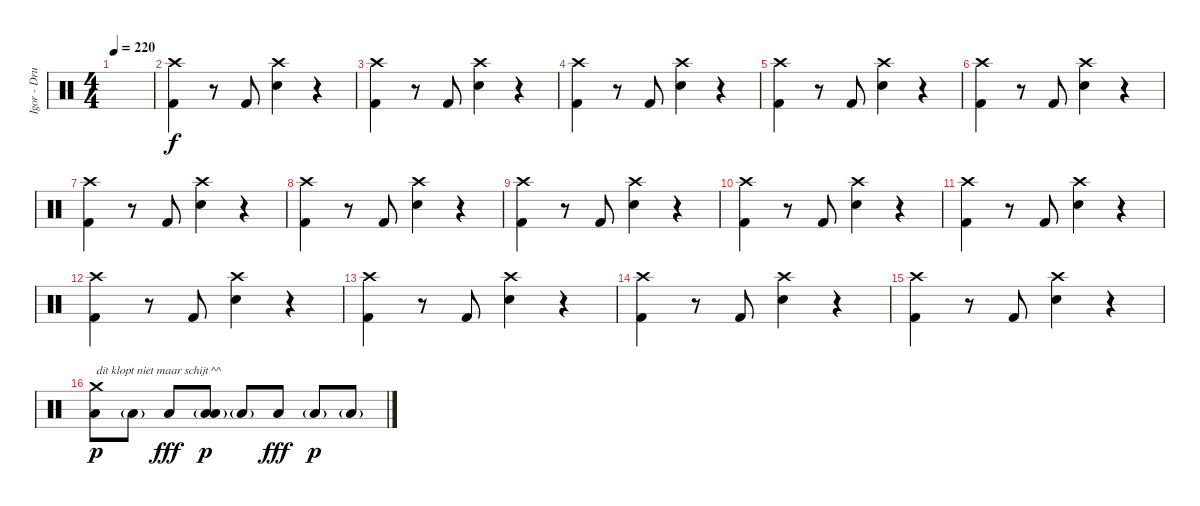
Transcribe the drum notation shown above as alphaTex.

\track ("Igor - Drums" "Igor - Dru") {instrument percussion}
\staff {score}
\articulation defaults
\ts (4 4)
\tempo 220
\clef neutral
\ks c
|
("Crash high (hit)" "Kick (hit) 2").4 r.8 "Kick (hit) 2".8 ("Crash high (hit)" "Snare (hit) 2").4 r.4 |
("Crash high (hit)" "Kick (hit) 2").4 r.8 "Kick (hit) 2".8 ("Crash high (hit)" "Snare (hit) 2").4 r.4 |
("Crash high (hit)" "Kick (hit) 2").4 r.8 "Kick (hit) 2".8 ("Crash high (hit)" "Snare (hit) 2").4 r.4 |
("Crash high (hit)" "Kick (hit) 2").4 r.8 "Kick (hit) 2".8 ("Crash high (hit)" "Snare (hit) 2").4 r.4 |
("Crash high (hit)" "Kick (hit) 2").4 r.8 "Kick (hit) 2".8 ("Crash high (hit)" "Snare (hit) 2").4 r.4 |
("Crash high (hit)" "Kick (hit) 2").4 r.8 "Kick (hit) 2".8 ("Crash high (hit)" "Snare (hit) 2").4 r.4 |
("Crash high (hit)" "Kick (hit) 2").4 r.8 "Kick (hit) 2".8 ("Crash high (hit)" "Snare (hit) 2").4 r.4 |
("Crash high (hit)" "Kick (hit) 2").4 r.8 "Kick (hit) 2".8 ("Crash high (hit)" "Snare (hit) 2").4 r.4 |
("Crash high (hit)" "Kick (hit) 2").4 r.8 "Kick (hit) 2".8 ("Crash high (hit)" "Snare (hit) 2").4 r.4 |
("Crash high (hit)" "Kick (hit) 2").4 r.8 "Kick (hit) 2".8 ("Crash high (hit)" "Snare (hit) 2").4 r.4 |
("Crash high (hit)" "Kick (hit) 2").4 r.8 "Kick (hit) 2".8 ("Crash high (hit)" "Snare (hit) 2").4 r.4 |
("Crash high (hit)" "Kick (hit) 2").4 r.8 "Kick (hit) 2".8 ("Crash high (hit)" "Snare (hit) 2").4 r.4 |
("Crash high (hit)" "Kick (hit) 2").4 r.8 "Kick (hit) 2".8 ("Crash high (hit)" "Snare (hit) 2").4 r.4 |
("Crash high (hit)" "Kick (hit) 2").4 r.8 "Kick (hit) 2".8 ("Crash high (hit)" "Snare (hit) 2").4 r.4 |
("Crash medium (hit)" "Low Floor Tom (hit)").8{txt "dit klopt niet maar schijt ^^" dy p} "Low Floor Tom (hit)"{g}.8 "Low Floor Tom (hit)".8{dy fff} ("Low Tom (hit)" "Low Floor Tom (hit)"{g}).8{dy p} "Low Floor Tom (hit)"{g}.8 "Low Floor Tom (hit)".8{dy fff} "Low Floor Tom (hit)"{g}.8{dy p} "Low Floor Tom (hit)"{g}.8
